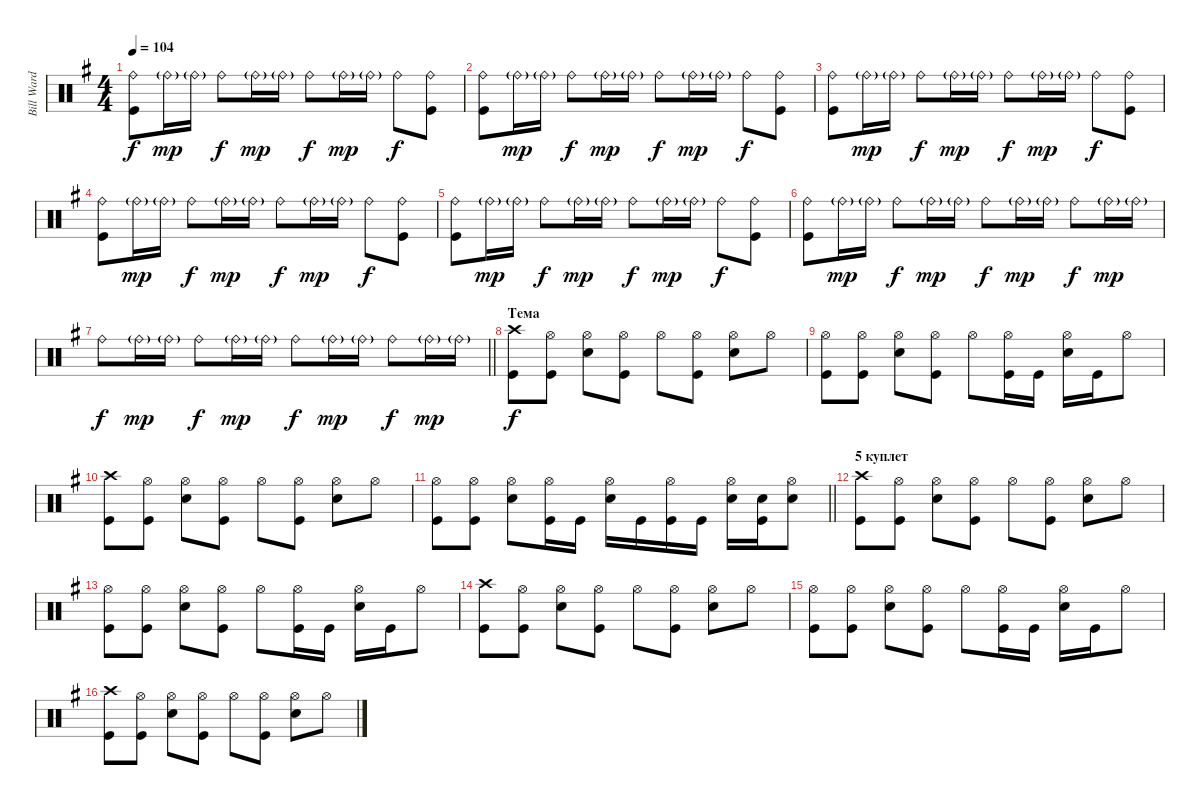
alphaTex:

\track ("Bill Ward" "Bill Ward") {instrument percussion}
\staff {score}
\articulation defaults
\ts (4 4)
\tempo 104
\clef neutral
\ks g
("Ride (bell)" "Kick (hit)").8{dy f} "Ride (bell)"{g}.16{dy mp} "Ride (bell)"{g}.16 "Ride (bell)".8{dy f} "Ride (bell)"{g}.16{dy mp} "Ride (bell)"{g}.16 "Ride (bell)".8{dy f} "Ride (bell)"{g}.16{dy mp} "Ride (bell)"{g}.16 "Ride (bell)".8{dy f} ("Ride (bell)" "Kick (hit)").8 |
("Ride (bell)" "Kick (hit)").8 "Ride (bell)"{g}.16{dy mp} "Ride (bell)"{g}.16 "Ride (bell)".8{dy f} "Ride (bell)"{g}.16{dy mp} "Ride (bell)"{g}.16 "Ride (bell)".8{dy f} "Ride (bell)"{g}.16{dy mp} "Ride (bell)"{g}.16 "Ride (bell)".8{dy f} ("Ride (bell)" "Kick (hit)").8 |
("Ride (bell)" "Kick (hit)").8 "Ride (bell)"{g}.16{dy mp} "Ride (bell)"{g}.16 "Ride (bell)".8{dy f} "Ride (bell)"{g}.16{dy mp} "Ride (bell)"{g}.16 "Ride (bell)".8{dy f} "Ride (bell)"{g}.16{dy mp} "Ride (bell)"{g}.16 "Ride (bell)".8{dy f} ("Ride (bell)" "Kick (hit)").8 |
("Ride (bell)" "Kick (hit)").8 "Ride (bell)"{g}.16{dy mp} "Ride (bell)"{g}.16 "Ride (bell)".8{dy f} "Ride (bell)"{g}.16{dy mp} "Ride (bell)"{g}.16 "Ride (bell)".8{dy f} "Ride (bell)"{g}.16{dy mp} "Ride (bell)"{g}.16 "Ride (bell)".8{dy f} ("Ride (bell)" "Kick (hit)").8 |
("Ride (bell)" "Kick (hit)").8 "Ride (bell)"{g}.16{dy mp} "Ride (bell)"{g}.16 "Ride (bell)".8{dy f} "Ride (bell)"{g}.16{dy mp} "Ride (bell)"{g}.16 "Ride (bell)".8{dy f} "Ride (bell)"{g}.16{dy mp} "Ride (bell)"{g}.16 "Ride (bell)".8{dy f} ("Ride (bell)" "Kick (hit)").8 |
("Ride (bell)" "Kick (hit)").8 "Ride (bell)"{g}.16{dy mp} "Ride (bell)"{g}.16 "Ride (bell)".8{dy f} "Ride (bell)"{g}.16{dy mp} "Ride (bell)"{g}.16 "Ride (bell)".8{dy f} "Ride (bell)"{g}.16{dy mp} "Ride (bell)"{g}.16 "Ride (bell)".8{dy f} "Ride (bell)"{g}.16{dy mp} "Ride (bell)"{g}.16 |
\barLineRight lightlight "Ride (bell)".8{dy f} "Ride (bell)"{g}.16{dy mp} "Ride (bell)"{g}.16 "Ride (bell)".8{dy f} "Ride (bell)"{g}.16{dy mp} "Ride (bell)"{g}.16 "Ride (bell)".8{dy f} "Ride (bell)"{g}.16{dy mp} "Ride (bell)"{g}.16 "Ride (bell)".8{dy f} "Ride (bell)"{g}.16{dy mp} "Ride (bell)"{g}.16
|
\section ("" "Тема")
("Crash high (hit)" "Kick (hit)").8{dy f} ("Kick (hit)" "Hi-Hat (open)").8 ("Snare (hit) 2" "Hi-Hat (open)").8 ("Kick (hit)" "Hi-Hat (open)").8 "Hi-Hat (open)".8 ("Kick (hit)" "Hi-Hat (open)").8 ("Hi-Hat (open)" "Snare (hit) 2").8 "Hi-Hat (open)".8 |
("Kick (hit)" "Hi-Hat (open)").8 ("Kick (hit)" "Hi-Hat (open)").8 ("Snare (hit) 2" "Hi-Hat (open)").8 ("Kick (hit)" "Hi-Hat (open)").8 "Hi-Hat (open)".8 ("Kick (hit)" "Hi-Hat (open)").16 "Kick (hit)".16 ("Hi-Hat (open)" "Snare (hit) 2").16 "Kick (hit)".16 "Hi-Hat (open)".8 |
("Crash high (hit)" "Kick (hit)").8 ("Kick (hit)" "Hi-Hat (open)").8 ("Snare (hit) 2" "Hi-Hat (open)").8 ("Kick (hit)" "Hi-Hat (open)").8 "Hi-Hat (open)".8 ("Kick (hit)" "Hi-Hat (open)").8 ("Hi-Hat (open)" "Snare (hit) 2").8 "Hi-Hat (open)".8 |
\barLineRight lightlight
("Kick (hit)" "Hi-Hat (open)").8 ("Kick (hit)" "Hi-Hat (open)").8 ("Snare (hit) 2" "Hi-Hat (open)").8 ("Kick (hit)" "Hi-Hat (open)").16 "Kick (hit)".16 ("Hi-Hat (open)" "Snare (hit) 2").16 "Kick (hit)".16 ("Kick (hit)" "Hi-Hat (open)").16 "Kick (hit)".16 ("Hi-Hat (open)" "Snare (hit) 2").16 ("Kick (hit)" "Snare (hit) 2").16 ("Hi-Hat (open)" "Snare (hit) 2").8 |
\section ("" "5 куплет")
("Crash high (hit)" "Kick (hit)").8 ("Kick (hit)" "Hi-Hat (open)").8 ("Snare (hit) 2" "Hi-Hat (open)").8 ("Kick (hit)" "Hi-Hat (open)").8 "Hi-Hat (open)".8 ("Kick (hit)" "Hi-Hat (open)").8 ("Hi-Hat (open)" "Snare (hit) 2").8 "Hi-Hat (open)".8 |
("Kick (hit)" "Hi-Hat (open)").8 ("Kick (hit)" "Hi-Hat (open)").8 ("Snare (hit) 2" "Hi-Hat (open)").8 ("Kick (hit)" "Hi-Hat (open)").8 "Hi-Hat (open)".8 ("Kick (hit)" "Hi-Hat (open)").16 "Kick (hit)".16 ("Snare (hit) 2" "Hi-Hat (open)").16 "Kick (hit)".16 "Hi-Hat (open)".8 |
("Crash high (hit)" "Kick (hit)").8 ("Kick (hit)" "Hi-Hat (open)").8 ("Snare (hit) 2" "Hi-Hat (open)").8 ("Kick (hit)" "Hi-Hat (open)").8 "Hi-Hat (open)".8 ("Kick (hit)" "Hi-Hat (open)").8 ("Hi-Hat (open)" "Snare (hit) 2").8 "Hi-Hat (open)".8 |
("Kick (hit)" "Hi-Hat (open)").8 ("Kick (hit)" "Hi-Hat (open)").8 ("Snare (hit) 2" "Hi-Hat (open)").8 ("Kick (hit)" "Hi-Hat (open)").8 "Hi-Hat (open)".8 ("Kick (hit)" "Hi-Hat (open)").16 "Kick (hit)".16 ("Snare (hit) 2" "Hi-Hat (open)").16 "Kick (hit)".16 "Hi-Hat (open)".8 |
("Crash high (hit)" "Kick (hit)").8 ("Kick (hit)" "Hi-Hat (open)").8 ("Snare (hit) 2" "Hi-Hat (open)").8 ("Kick (hit)" "Hi-Hat (open)").8 "Hi-Hat (open)".8 ("Kick (hit)" "Hi-Hat (open)").8 ("Hi-Hat (open)" "Snare (hit) 2").8 "Hi-Hat (open)".8
